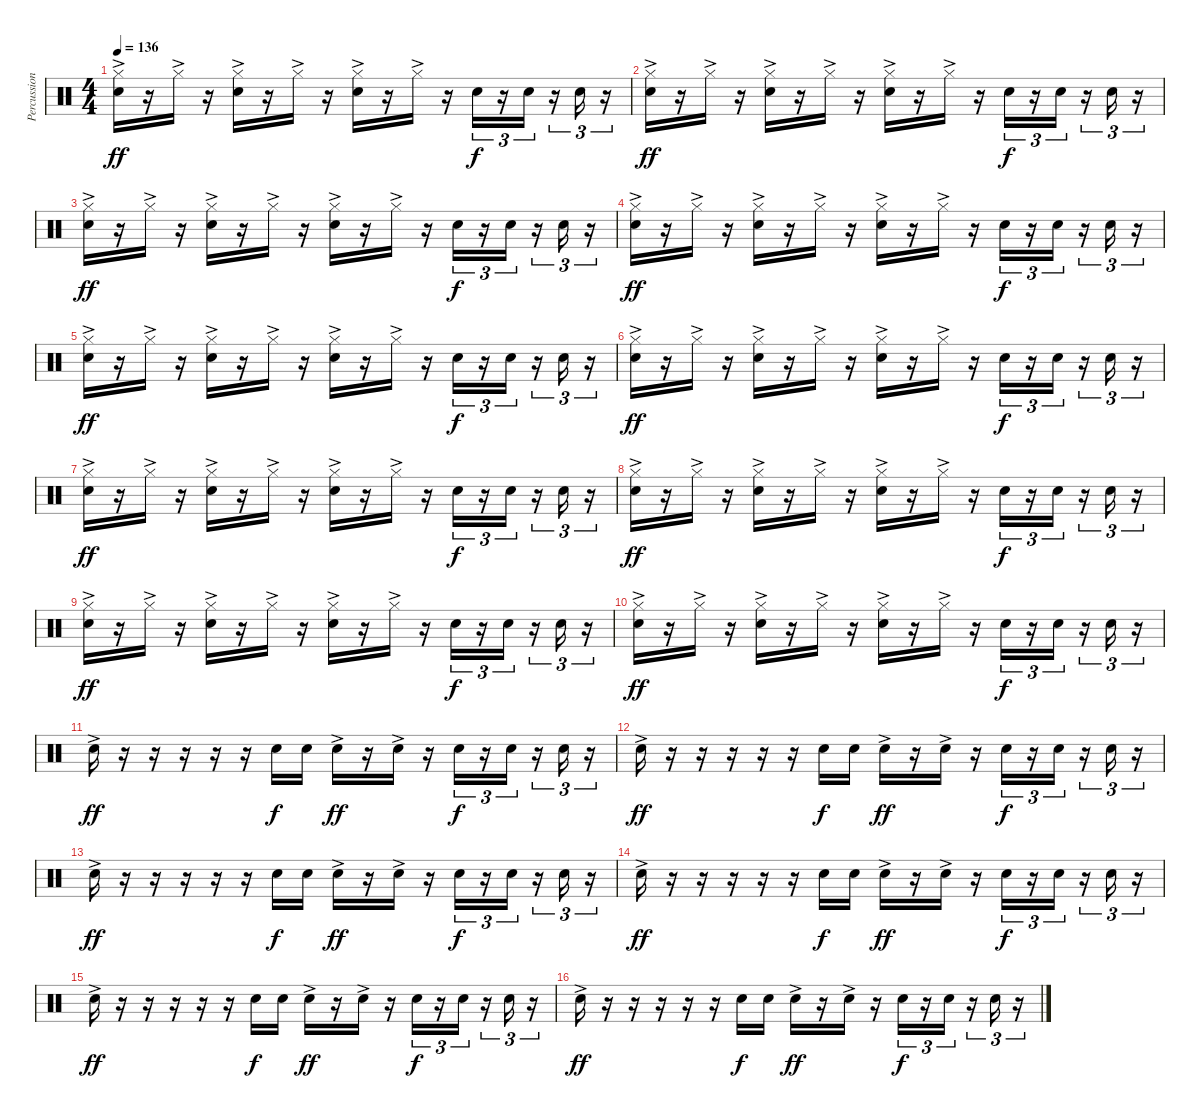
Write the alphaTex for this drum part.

\track ("Percussion" "Percussion") {instrument percussion bank 11}
\staff {score}
\articulation defaults
\ts (4 4)
\tempo 136
\clef neutral
\ks c
("Hi-Hat (closed)"{ac} "Snare (hit) 2"{ac}).16{dy ff} r.16 "Hi-Hat (closed)"{ac}.16 r.16 ("Hi-Hat (closed)"{ac} "Snare (hit) 2"{ac}).16 r.16 "Hi-Hat (closed)"{ac}.16 r.16 ("Hi-Hat (closed)"{ac} "Snare (hit) 2"{ac}).16 r.16 "Hi-Hat (closed)"{ac}.16 r.16 "Snare (hit) 2".16{tu (3 2) dy f} r.16{tu (3 2)} "Snare (hit) 2".16{tu (3 2)} r.16{tu (3 2)} "Snare (hit) 2".16{tu (3 2)} r.16{tu (3 2)} |
("Hi-Hat (closed)"{ac} "Snare (hit) 2"{ac}).16{dy ff} r.16 "Hi-Hat (closed)"{ac}.16 r.16 ("Hi-Hat (closed)"{ac} "Snare (hit) 2"{ac}).16 r.16 "Hi-Hat (closed)"{ac}.16 r.16 ("Hi-Hat (closed)"{ac} "Snare (hit) 2"{ac}).16 r.16 "Hi-Hat (closed)"{ac}.16 r.16 "Snare (hit) 2".16{tu (3 2) dy f} r.16{tu (3 2)} "Snare (hit) 2".16{tu (3 2)} r.16{tu (3 2)} "Snare (hit) 2".16{tu (3 2)} r.16{tu (3 2)} |
("Hi-Hat (closed)"{ac} "Snare (hit) 2"{ac}).16{dy ff} r.16 "Hi-Hat (closed)"{ac}.16 r.16 ("Hi-Hat (closed)"{ac} "Snare (hit) 2"{ac}).16 r.16 "Hi-Hat (closed)"{ac}.16 r.16 ("Hi-Hat (closed)"{ac} "Snare (hit) 2"{ac}).16 r.16 "Hi-Hat (closed)"{ac}.16 r.16 "Snare (hit) 2".16{tu (3 2) dy f} r.16{tu (3 2)} "Snare (hit) 2".16{tu (3 2)} r.16{tu (3 2)} "Snare (hit) 2".16{tu (3 2)} r.16{tu (3 2)} |
("Hi-Hat (closed)"{ac} "Snare (hit) 2"{ac}).16{dy ff} r.16 "Hi-Hat (closed)"{ac}.16 r.16 ("Hi-Hat (closed)"{ac} "Snare (hit) 2"{ac}).16 r.16 "Hi-Hat (closed)"{ac}.16 r.16 ("Hi-Hat (closed)"{ac} "Snare (hit) 2"{ac}).16 r.16 "Hi-Hat (closed)"{ac}.16 r.16 "Snare (hit) 2".16{tu (3 2) dy f} r.16{tu (3 2)} "Snare (hit) 2".16{tu (3 2)} r.16{tu (3 2)} "Snare (hit) 2".16{tu (3 2)} r.16{tu (3 2)} |
("Hi-Hat (closed)"{ac} "Snare (hit) 2"{ac}).16{dy ff} r.16 "Hi-Hat (closed)"{ac}.16 r.16 ("Hi-Hat (closed)"{ac} "Snare (hit) 2"{ac}).16 r.16 "Hi-Hat (closed)"{ac}.16 r.16 ("Hi-Hat (closed)"{ac} "Snare (hit) 2"{ac}).16 r.16 "Hi-Hat (closed)"{ac}.16 r.16 "Snare (hit) 2".16{tu (3 2) dy f} r.16{tu (3 2)} "Snare (hit) 2".16{tu (3 2)} r.16{tu (3 2)} "Snare (hit) 2".16{tu (3 2)} r.16{tu (3 2)} |
("Hi-Hat (closed)"{ac} "Snare (hit) 2"{ac}).16{dy ff} r.16 "Hi-Hat (closed)"{ac}.16 r.16 ("Hi-Hat (closed)"{ac} "Snare (hit) 2"{ac}).16 r.16 "Hi-Hat (closed)"{ac}.16 r.16 ("Hi-Hat (closed)"{ac} "Snare (hit) 2"{ac}).16 r.16 "Hi-Hat (closed)"{ac}.16 r.16 "Snare (hit) 2".16{tu (3 2) dy f} r.16{tu (3 2)} "Snare (hit) 2".16{tu (3 2)} r.16{tu (3 2)} "Snare (hit) 2".16{tu (3 2)} r.16{tu (3 2)} |
("Hi-Hat (closed)"{ac} "Snare (hit) 2"{ac}).16{dy ff} r.16 "Hi-Hat (closed)"{ac}.16 r.16 ("Hi-Hat (closed)"{ac} "Snare (hit) 2"{ac}).16 r.16 "Hi-Hat (closed)"{ac}.16 r.16 ("Hi-Hat (closed)"{ac} "Snare (hit) 2"{ac}).16 r.16 "Hi-Hat (closed)"{ac}.16 r.16 "Snare (hit) 2".16{tu (3 2) dy f} r.16{tu (3 2)} "Snare (hit) 2".16{tu (3 2)} r.16{tu (3 2)} "Snare (hit) 2".16{tu (3 2)} r.16{tu (3 2)} |
("Hi-Hat (closed)"{ac} "Snare (hit) 2"{ac}).16{dy ff} r.16 "Hi-Hat (closed)"{ac}.16 r.16 ("Hi-Hat (closed)"{ac} "Snare (hit) 2"{ac}).16 r.16 "Hi-Hat (closed)"{ac}.16 r.16 ("Hi-Hat (closed)"{ac} "Snare (hit) 2"{ac}).16 r.16 "Hi-Hat (closed)"{ac}.16 r.16 "Snare (hit) 2".16{tu (3 2) dy f} r.16{tu (3 2)} "Snare (hit) 2".16{tu (3 2)} r.16{tu (3 2)} "Snare (hit) 2".16{tu (3 2)} r.16{tu (3 2)} |
("Hi-Hat (closed)"{ac} "Snare (hit) 2"{ac}).16{dy ff} r.16 "Hi-Hat (closed)"{ac}.16 r.16 ("Hi-Hat (closed)"{ac} "Snare (hit) 2"{ac}).16 r.16 "Hi-Hat (closed)"{ac}.16 r.16 ("Hi-Hat (closed)"{ac} "Snare (hit) 2"{ac}).16 r.16 "Hi-Hat (closed)"{ac}.16 r.16 "Snare (hit) 2".16{tu (3 2) dy f} r.16{tu (3 2)} "Snare (hit) 2".16{tu (3 2)} r.16{tu (3 2)} "Snare (hit) 2".16{tu (3 2)} r.16{tu (3 2)} |
("Hi-Hat (closed)"{ac} "Snare (hit) 2"{ac}).16{dy ff} r.16 "Hi-Hat (closed)"{ac}.16 r.16 ("Hi-Hat (closed)"{ac} "Snare (hit) 2"{ac}).16 r.16 "Hi-Hat (closed)"{ac}.16 r.16 ("Hi-Hat (closed)"{ac} "Snare (hit) 2"{ac}).16 r.16 "Hi-Hat (closed)"{ac}.16 r.16 "Snare (hit) 2".16{tu (3 2) dy f} r.16{tu (3 2)} "Snare (hit) 2".16{tu (3 2)} r.16{tu (3 2)} "Snare (hit) 2".16{tu (3 2)} r.16{tu (3 2)} |
"Snare (hit) 2"{ac}.16{dy ff} r.16 r.16 r.16 r.16 r.16 "Snare (hit) 2".16{dy f} "Snare (hit) 2".16 "Snare (hit) 2"{ac}.16{dy ff} r.16 "Snare (hit) 2"{ac}.16 r.16 "Snare (hit) 2".16{tu (3 2) dy f} r.16{tu (3 2)} "Snare (hit) 2".16{tu (3 2)} r.16{tu (3 2)} "Snare (hit) 2".16{tu (3 2)} r.16{tu (3 2)} |
"Snare (hit) 2"{ac}.16{dy ff} r.16 r.16 r.16 r.16 r.16 "Snare (hit) 2".16{dy f} "Snare (hit) 2".16 "Snare (hit) 2"{ac}.16{dy ff} r.16 "Snare (hit) 2"{ac}.16 r.16 "Snare (hit) 2".16{tu (3 2) dy f} r.16{tu (3 2)} "Snare (hit) 2".16{tu (3 2)} r.16{tu (3 2)} "Snare (hit) 2".16{tu (3 2)} r.16{tu (3 2)} |
"Snare (hit) 2"{ac}.16{dy ff} r.16 r.16 r.16 r.16 r.16 "Snare (hit) 2".16{dy f} "Snare (hit) 2".16 "Snare (hit) 2"{ac}.16{dy ff} r.16 "Snare (hit) 2"{ac}.16 r.16 "Snare (hit) 2".16{tu (3 2) dy f} r.16{tu (3 2)} "Snare (hit) 2".16{tu (3 2)} r.16{tu (3 2)} "Snare (hit) 2".16{tu (3 2)} r.16{tu (3 2)} |
"Snare (hit) 2"{ac}.16{dy ff} r.16 r.16 r.16 r.16 r.16 "Snare (hit) 2".16{dy f} "Snare (hit) 2".16 "Snare (hit) 2"{ac}.16{dy ff} r.16 "Snare (hit) 2"{ac}.16 r.16 "Snare (hit) 2".16{tu (3 2) dy f} r.16{tu (3 2)} "Snare (hit) 2".16{tu (3 2)} r.16{tu (3 2)} "Snare (hit) 2".16{tu (3 2)} r.16{tu (3 2)} |
"Snare (hit) 2"{ac}.16{dy ff} r.16 r.16 r.16 r.16 r.16 "Snare (hit) 2".16{dy f} "Snare (hit) 2".16 "Snare (hit) 2"{ac}.16{dy ff} r.16 "Snare (hit) 2"{ac}.16 r.16 "Snare (hit) 2".16{tu (3 2) dy f} r.16{tu (3 2)} "Snare (hit) 2".16{tu (3 2)} r.16{tu (3 2)} "Snare (hit) 2".16{tu (3 2)} r.16{tu (3 2)} |
"Snare (hit) 2"{ac}.16{dy ff} r.16 r.16 r.16 r.16 r.16 "Snare (hit) 2".16{dy f} "Snare (hit) 2".16 "Snare (hit) 2"{ac}.16{dy ff} r.16 "Snare (hit) 2"{ac}.16 r.16 "Snare (hit) 2".16{tu (3 2) dy f} r.16{tu (3 2)} "Snare (hit) 2".16{tu (3 2)} r.16{tu (3 2)} "Snare (hit) 2".16{tu (3 2)} r.16{tu (3 2)}
